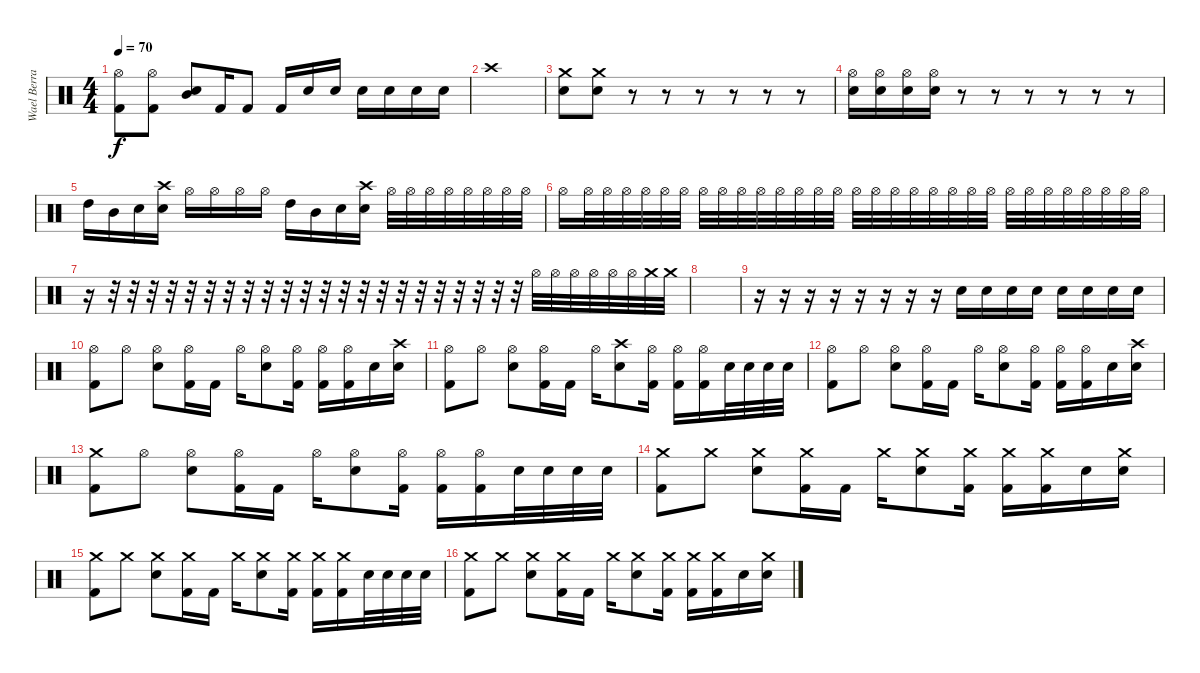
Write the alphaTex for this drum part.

\track ("Wael Berrais" "Wael Berra") {instrument percussion}
\staff {score}
\articulation defaults
\ts (4 4)
\tempo 70
\clef neutral
\ks c
("Hi-Hat (open)" "Kick (hit) 2").8{dy f} ("Hi-Hat (open)" "Kick (hit) 2").8 ("Mid Tom (hit)" "Electric Snare (hit)").8 "Kick (hit) 2".16 "Kick (hit) 2".8 "Kick (hit) 2".16 "Electric Snare (hit)".16 "Electric Snare (hit)".16 "Electric Snare (hit)".16 "Electric Snare (hit)".16 "Electric Snare (hit)".16 "Electric Snare (hit)".16 |
"Crash high (hit)".1 |
("Electric Snare (hit)" "Crash medium (hit)").8 ("Electric Snare (hit)" "Crash medium (hit)").8 r.8 r.8 r.8 r.8 r.8 r.8 |
("Electric Snare (hit)" "Hi-Hat (open)").16 ("Electric Snare (hit)" "Hi-Hat (open)").16 ("Electric Snare (hit)" "Hi-Hat (open)").16 ("Electric Snare (hit)" "Hi-Hat (open)").16 r.8 r.8 r.8 r.8 r.8 r.8 |
"High Tom (hit)".16 "Mid Tom (hit)".16 "Electric Snare (hit)".16 ("Electric Snare (hit)" "Crash high (hit)").16 "Hi-Hat (open)".16 "Hi-Hat (open)".16 "Hi-Hat (open)".16 "Hi-Hat (open)".16 "High Tom (hit)".16 "Mid Tom (hit)".16 "Electric Snare (hit)".16 ("Crash high (hit)" "Electric Snare (hit)").16 "Hi-Hat (open)".32 "Hi-Hat (open)".32 "Hi-Hat (open)".32 "Hi-Hat (open)".32 "Hi-Hat (open)".32 "Hi-Hat (open)".32 "Hi-Hat (open)".32 "Hi-Hat (open)".32 |
"Hi-Hat (open)".16 "Hi-Hat (open)".32 "Hi-Hat (open)".32 "Hi-Hat (open)".32 "Hi-Hat (open)".32 "Hi-Hat (open)".32 "Hi-Hat (open)".32 "Hi-Hat (open)".32 "Hi-Hat (open)".32 "Hi-Hat (open)".32 "Hi-Hat (open)".32 "Hi-Hat (open)".32 "Hi-Hat (open)".32 "Hi-Hat (open)".32 "Hi-Hat (open)".32 "Hi-Hat (open)".32 "Hi-Hat (open)".32 "Hi-Hat (open)".32 "Hi-Hat (open)".32 "Hi-Hat (open)".32 "Hi-Hat (open)".32 "Hi-Hat (open)".32 "Hi-Hat (open)".32 "Hi-Hat (open)".32 "Hi-Hat (open)".32 "Hi-Hat (open)".32 "Hi-Hat (open)".32 "Hi-Hat (open)".32 "Hi-Hat (open)".32 "Hi-Hat (open)".32 "Hi-Hat (open)".32 |
r.16 r.32 r.32 r.32 r.32 r.32 r.32 r.32 r.32 r.32 r.32 r.32 r.32 r.32 r.32 r.32 r.32 r.32 r.32 r.32 r.32 r.32 r.32 "Hi-Hat (open)".32 "Hi-Hat (open)".32 "Hi-Hat (open)".32 "Hi-Hat (open)".32 "Hi-Hat (open)".32 "Hi-Hat (open)".32 "Crash medium (hit)".32 "Crash medium (hit)".32 |
|
r.16 r.16 r.16 r.16 r.16 r.16 r.16 r.16 "Electric Snare (hit)".16 "Electric Snare (hit)".16 "Electric Snare (hit)".16 "Electric Snare (hit)".16 "Electric Snare (hit)".16 "Electric Snare (hit)".16 "Electric Snare (hit)".16 "Electric Snare (hit)".16 |
("Hi-Hat (open)" "Kick (hit) 2").8 "Hi-Hat (open)".8 ("Hi-Hat (open)" "Electric Snare (hit)").8 ("Hi-Hat (open)" "Kick (hit) 2").16 "Kick (hit) 2".16 "Hi-Hat (open)".16 ("Hi-Hat (open)" "Electric Snare (hit)").8 ("Hi-Hat (open)" "Kick (hit) 2").16 ("Hi-Hat (open)" "Kick (hit) 2").16 ("Hi-Hat (open)" "Kick (hit) 2").16 "Electric Snare (hit)".16 ("Electric Snare (hit)" "Crash high (hit)").16 |
("Hi-Hat (open)" "Kick (hit) 2").8 "Hi-Hat (open)".8 ("Hi-Hat (open)" "Electric Snare (hit)").8 ("Hi-Hat (open)" "Kick (hit) 2").16 "Kick (hit) 2".16 "Hi-Hat (open)".16 ("Crash high (hit)" "Electric Snare (hit)").8 ("Hi-Hat (open)" "Kick (hit) 2").16 ("Hi-Hat (open)" "Kick (hit) 2").16 ("Hi-Hat (open)" "Kick (hit) 2").16 "Electric Snare (hit)".32 "Electric Snare (hit)".32 "Electric Snare (hit)".32 "Electric Snare (hit)".32 |
("Hi-Hat (open)" "Kick (hit) 2").8 "Hi-Hat (open)".8 ("Hi-Hat (open)" "Electric Snare (hit)").8 ("Hi-Hat (open)" "Kick (hit) 2").16 "Kick (hit) 2".16 "Hi-Hat (open)".16 ("Hi-Hat (open)" "Electric Snare (hit)").8 ("Hi-Hat (open)" "Kick (hit) 2").16 ("Hi-Hat (open)" "Kick (hit) 2").16 ("Hi-Hat (open)" "Kick (hit) 2").16 "Electric Snare (hit)".16 ("Electric Snare (hit)" "Crash high (hit)").16 |
("Crash medium (hit)" "Kick (hit) 2").8 "Hi-Hat (open)".8 ("Hi-Hat (open)" "Electric Snare (hit)").8 ("Hi-Hat (open)" "Kick (hit) 2").16 "Kick (hit) 2".16 "Hi-Hat (open)".16 ("Hi-Hat (open)" "Electric Snare (hit)").8 ("Hi-Hat (open)" "Kick (hit) 2").16 ("Hi-Hat (open)" "Kick (hit) 2").16 ("Hi-Hat (open)" "Kick (hit) 2").16 "Electric Snare (hit)".32 "Electric Snare (hit)".32 "Electric Snare (hit)".32 "Electric Snare (hit)".32 |
("Crash medium (hit)" "Kick (hit) 2").8 "Crash medium (hit)".8 ("Crash medium (hit)" "Electric Snare (hit)").8 ("Crash medium (hit)" "Kick (hit) 2").16 "Kick (hit) 2".16 "Crash medium (hit)".16 ("Crash medium (hit)" "Electric Snare (hit)").8 ("Crash medium (hit)" "Kick (hit) 2").16 ("Crash medium (hit)" "Kick (hit) 2").16 ("Crash medium (hit)" "Kick (hit) 2").16 "Electric Snare (hit)".16 ("Electric Snare (hit)" "Crash medium (hit)").16 |
("Crash medium (hit)" "Kick (hit) 2").8 "Crash medium (hit)".8 ("Crash medium (hit)" "Electric Snare (hit)").8 ("Crash medium (hit)" "Kick (hit) 2").16 "Kick (hit) 2".16 "Crash medium (hit)".16 ("Crash medium (hit)" "Electric Snare (hit)").8 ("Crash medium (hit)" "Kick (hit) 2").16 ("Crash medium (hit)" "Kick (hit) 2").16 ("Crash medium (hit)" "Kick (hit) 2").16 "Electric Snare (hit)".32 "Electric Snare (hit)".32 "Electric Snare (hit)".32 "Electric Snare (hit)".32 |
("Crash medium (hit)" "Kick (hit) 2").8 "Crash medium (hit)".8 ("Crash medium (hit)" "Electric Snare (hit)").8 ("Crash medium (hit)" "Kick (hit) 2").16 "Kick (hit) 2".16 "Crash medium (hit)".16 ("Crash medium (hit)" "Electric Snare (hit)").8 ("Crash medium (hit)" "Kick (hit) 2").16 ("Crash medium (hit)" "Kick (hit) 2").16 ("Crash medium (hit)" "Kick (hit) 2").16 "Electric Snare (hit)".16 ("Electric Snare (hit)" "Crash medium (hit)").16
